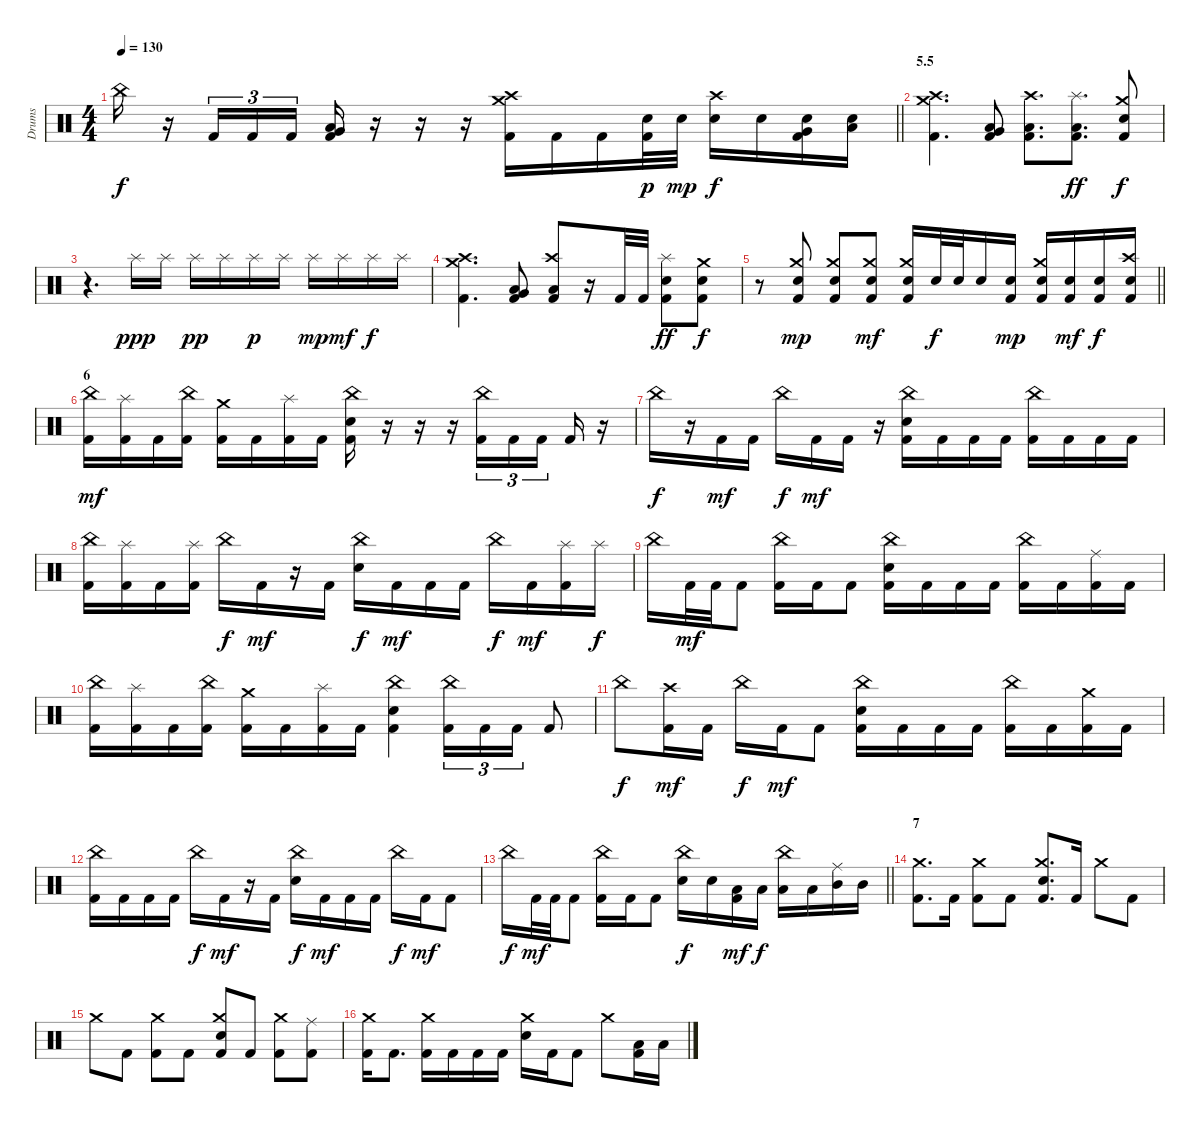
\track ("Drums" "Drums") {instrument percussion}
\staff {score}
\articulation defaults
\ts (4 4)
\tempo 130
\clef neutral
\barLineRight lightlight
\ks c "China (hit)".16{dy f}
r.16 "Kick (hit) 2".16{tu (3 2)} "Kick (hit) 2".16{tu (3 2)} "Kick (hit) 2".16{tu (3 2)} ("Very Low Tom (hit)" "Low Tom (hit)" "Kick (hit) 2").16 r.16 r.16 r.16 ("Crash medium (hit)" "Crash high (hit)" "Kick (hit) 2").16 "Kick (hit) 2".16 "Kick (hit) 2".16 ("Electric Snare (hit)" "Kick (hit) 2").32{dy p} "Electric Snare (hit)".32{dy mp} ("Crash high (hit)" "Electric Snare (hit)").16{dy f} "Electric Snare (hit)".16 ("Very Low Tom (hit)" "Electric Snare (hit)" "Kick (hit) 2").16 ("Low Floor Tom (hit)" "Electric Snare (hit)").16 |
\section ("" "5.5")
("Crash medium (hit)" "Crash high (hit)" "Kick (hit) 2").4{d} ("Low Tom (hit)" "Very Low Tom (hit)" "Kick (hit) 2").8 ("Crash high (hit)" "Low Floor Tom (hit)" "Kick (hit) 2").8{d} ("Splash (hit)" "Low Floor Tom (hit)" "Kick (hit) 2").8{d dy ff} ("Crash medium (hit)" "Electric Snare (hit)" "Kick (hit) 2").8{dy f} |
r.4{d} "Splash (hit)".16{dy ppp} "Splash (hit)".16 "Splash (hit)".16{dy pp} "Splash (hit)".16 "Splash (hit)".16{dy p} "Splash (hit)".16 "Splash (hit)".16{dy mp} "Splash (hit)".16{dy mf} "Splash (hit)".16{dy f} "Splash (hit)".16 |
("Crash medium (hit)" "Crash high (hit)" "Kick (hit) 2").4{d} ("Low Tom (hit)" "Very Low Tom (hit)" "Kick (hit) 2").8 ("Crash high (hit)" "Low Floor Tom (hit)" "Kick (hit) 2").8 r.16 "Kick (hit) 2".32 "Kick (hit) 2".32 ("Splash (hit)" "Electric Snare (hit)" "Kick (hit) 2").8{dy ff} ("Crash medium (hit)" "Electric Snare (hit)" "Kick (hit) 2").8{dy f} |
\barLineRight lightlight
r.8 ("Crash medium (hit)" "Electric Snare (hit)" "Kick (hit) 2").8{dy mp} ("Crash medium (hit)" "Electric Snare (hit)" "Kick (hit) 2").8 ("Crash medium (hit)" "Electric Snare (hit)" "Kick (hit) 2").8{dy mf} ("Crash medium (hit)" "Electric Snare (hit)" "Kick (hit) 2").16 "Electric Snare (hit)".32{dy f} "Electric Snare (hit)".32 "Electric Snare (hit)".16 ("Electric Snare (hit)" "Kick (hit) 2").16{dy mp} ("Crash medium (hit)" "Electric Snare (hit)" "Kick (hit) 2").16 ("Electric Snare (hit)" "Kick (hit) 2").16{dy mf} ("Electric Snare (hit)" "Kick (hit) 2").16{dy f} ("Crash high (hit)" "Electric Snare (hit)" "Kick (hit) 2").16 |
\section ("" "6")
("China (hit)" "Kick (hit) 2").16{dy mf} ("Splash (hit)" "Kick (hit) 2").16 "Kick (hit) 2".16 ("China (hit)" "Kick (hit) 2").16 ("Crash medium (hit)" "Kick (hit) 2").16 "Kick (hit) 2".16 ("Splash (hit)" "Kick (hit) 2").16 "Kick (hit) 2".16 ("China (hit)" "Electric Snare (hit)" "Kick (hit) 2").16 r.16 r.16 r.16 ("Kick (hit) 2" "China (hit)").16{tu (3 2)} "Kick (hit) 2".16{tu (3 2)} "Kick (hit) 2".16{tu (3 2) beam splitsecondary} "Kick (hit) 2".16 r.16 |
"China (hit)".16{dy f} r.16 "Kick (hit) 2".16{dy mf} "Kick (hit) 2".16 "China (hit)".16{dy f} "Kick (hit) 2".16{dy mf} "Kick (hit) 2".16 r.16 ("China (hit)" "Electric Snare (hit)" "Kick (hit) 2").16 "Kick (hit) 2".16 "Kick (hit) 2".16 "Kick (hit) 2".16 ("China (hit)" "Kick (hit) 2").16 "Kick (hit) 2".16 "Kick (hit) 2".16 "Kick (hit) 2".16 |
("China (hit)" "Kick (hit) 2").16 ("Splash (hit)" "Kick (hit) 2").16 "Kick (hit) 2".16 ("Splash (hit)" "Kick (hit) 2").16 "China (hit)".16{dy f} "Kick (hit) 2".16{dy mf} r.16 "Kick (hit) 2".16 ("China (hit)" "Electric Snare (hit)").16{dy f} "Kick (hit) 2".16{dy mf} "Kick (hit) 2".16 "Kick (hit) 2".16 "China (hit)".16{dy f} "Kick (hit) 2".16{dy mf} ("Splash (hit)" "Kick (hit) 2").16 "Splash (hit)".16{dy f} |
"China (hit)".16 "Kick (hit) 2".32{dy mf} "Kick (hit) 2".32 "Kick (hit) 2".8 ("China (hit)" "Kick (hit) 2").16 "Kick (hit) 2".16 "Kick (hit) 2".8 ("Electric Snare (hit)" "China (hit)" "Kick (hit) 2").16 "Kick (hit) 2".16 "Kick (hit) 2".16 "Kick (hit) 2".16 ("China (hit)" "Kick (hit) 2").16 "Kick (hit) 2".16 ("Ride (middle)" "Kick (hit) 2").16 "Kick (hit) 2".16 |
("China (hit)" "Kick (hit) 2").16 ("Splash (hit)" "Kick (hit) 2").16 "Kick (hit) 2".16 ("China (hit)" "Kick (hit) 2").16 ("Crash medium (hit)" "Kick (hit) 2").16 "Kick (hit) 2".16 ("Splash (hit)" "Kick (hit) 2").16 "Kick (hit) 2".16 ("China (hit)" "Electric Snare (hit)" "Kick (hit) 2").4 ("Kick (hit) 2" "China (hit)").16{tu (3 2)} "Kick (hit) 2".16{tu (3 2)} "Kick (hit) 2".16{tu (3 2)} "Kick (hit) 2".8 |
"China (hit)".8{dy f} ("Crash high (hit)" "Kick (hit) 2").16{dy mf} "Kick (hit) 2".16 "China (hit)".16{dy f} "Kick (hit) 2".16{dy mf} "Kick (hit) 2".8 ("China (hit)" "Electric Snare (hit)" "Kick (hit) 2").16 "Kick (hit) 2".16 "Kick (hit) 2".16 "Kick (hit) 2".16 ("China (hit)" "Kick (hit) 2").16 "Kick (hit) 2".16 ("Crash medium (hit)" "Kick (hit) 2").16 "Kick (hit) 2".16 |
("China (hit)" "Kick (hit) 2").16 "Kick (hit) 2".16 "Kick (hit) 2".16 "Kick (hit) 2".16 "China (hit)".16{dy f} "Kick (hit) 2".16{dy mf} r.16 "Kick (hit) 2".16 ("China (hit)" "Electric Snare (hit)").16{dy f} "Kick (hit) 2".16{dy mf} "Kick (hit) 2".16 "Kick (hit) 2".16 "China (hit)".16{dy f} "Kick (hit) 2".16{dy mf} "Kick (hit) 2".8 |
\barLineRight lightlight "China (hit)".16{dy f} "Kick (hit) 2".32{dy mf} "Kick (hit) 2".32 "Kick (hit) 2".8
("China (hit)" "Kick (hit) 2").16 "Kick (hit) 2".16 "Kick (hit) 2".8 ("China (hit)" "Electric Snare (hit)").16{dy f} "Electric Snare (hit)".16 ("Low Floor Tom (hit)" "Kick (hit) 2").16{dy mf} "Low Floor Tom (hit)".16{dy f} ("China (hit)" "Low Tom (hit)").16 "Low Tom (hit)".16 ("Ride (middle)" "Mid Tom (hit)").16 "Mid Tom (hit)".16 |
\section ("" "7")
("Crash medium (hit)" "Kick (hit) 2").8{d} "Kick (hit) 2".16 ("Crash medium (hit)" "Kick (hit) 2").8 "Kick (hit) 2".8 ("Crash medium (hit)" "Electric Snare (hit)" "Kick (hit) 2").8{d} "Kick (hit) 2".16 "Crash medium (hit)".8 "Kick (hit) 2".8 |
"Crash medium (hit)".8 "Kick (hit) 2".8 ("Crash medium (hit)" "Kick (hit) 2").8 "Kick (hit) 2".8 ("Crash medium (hit)" "Electric Snare (hit)" "Kick (hit) 2").8 "Kick (hit) 2".8 ("Crash medium (hit)" "Kick (hit) 2").8 ("Ride (middle)" "Kick (hit) 2").8 |
("Crash medium (hit)" "Kick (hit) 2").16 "Kick (hit) 2".8{d} ("Crash medium (hit)" "Kick (hit) 2").16 "Kick (hit) 2".16 "Kick (hit) 2".16 "Kick (hit) 2".16 ("Crash medium (hit)" "Electric Snare (hit)").16 "Kick (hit) 2".16 "Kick (hit) 2".8 "Crash medium (hit)".8 ("Low Floor Tom (hit)" "Kick (hit) 2").16 "Low Floor Tom (hit)".16
